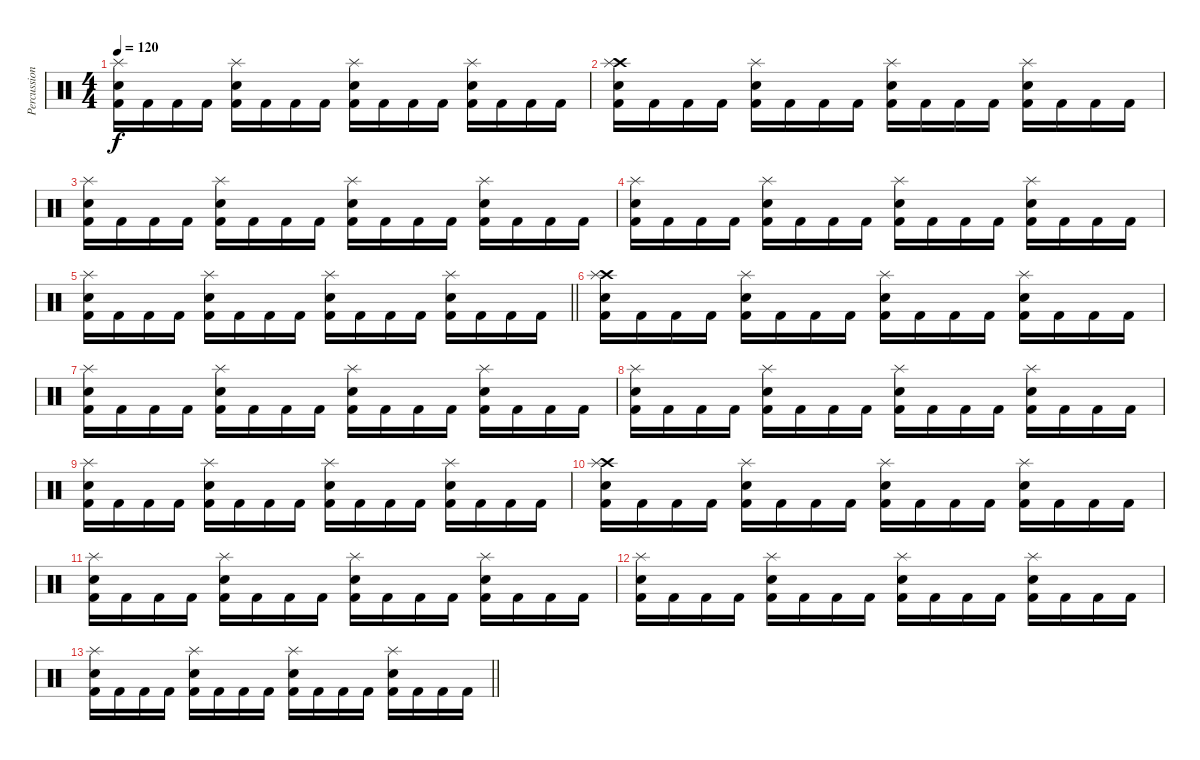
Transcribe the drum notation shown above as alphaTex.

\track ("Percussion" "Percussion") {instrument percussion}
\staff {score}
\articulation defaults
\ts (4 4)
\tempo 120
\clef neutral
\ks c
("Splash (hit)" "Electric Snare (hit)" "Kick (hit) 2").16{dy f} "Kick (hit) 2".16 "Kick (hit) 2".16 "Kick (hit) 2".16 ("Splash (hit)" "Electric Snare (hit)" "Kick (hit) 2").16 "Kick (hit) 2".16 "Kick (hit) 2".16 "Kick (hit) 2".16 ("Splash (hit)" "Electric Snare (hit)" "Kick (hit) 2").16 "Kick (hit) 2".16 "Kick (hit) 2".16 "Kick (hit) 2".16 ("Splash (hit)" "Electric Snare (hit)" "Kick (hit) 2").16 "Kick (hit) 2".16 "Kick (hit) 2".16 "Kick (hit) 2".16 |
("Crash high (hit)" "Splash (hit)" "Electric Snare (hit)" "Kick (hit) 2").16 "Kick (hit) 2".16 "Kick (hit) 2".16 "Kick (hit) 2".16 ("Splash (hit)" "Electric Snare (hit)" "Kick (hit) 2").16 "Kick (hit) 2".16 "Kick (hit) 2".16 "Kick (hit) 2".16 ("Splash (hit)" "Electric Snare (hit)" "Kick (hit) 2").16 "Kick (hit) 2".16 "Kick (hit) 2".16 "Kick (hit) 2".16 ("Splash (hit)" "Electric Snare (hit)" "Kick (hit) 2").16 "Kick (hit) 2".16 "Kick (hit) 2".16 "Kick (hit) 2".16 |
("Splash (hit)" "Electric Snare (hit)" "Kick (hit) 2").16 "Kick (hit) 2".16 "Kick (hit) 2".16 "Kick (hit) 2".16 ("Splash (hit)" "Electric Snare (hit)" "Kick (hit) 2").16 "Kick (hit) 2".16 "Kick (hit) 2".16 "Kick (hit) 2".16 ("Splash (hit)" "Electric Snare (hit)" "Kick (hit) 2").16 "Kick (hit) 2".16 "Kick (hit) 2".16 "Kick (hit) 2".16 ("Splash (hit)" "Electric Snare (hit)" "Kick (hit) 2").16 "Kick (hit) 2".16 "Kick (hit) 2".16 "Kick (hit) 2".16 |
("Splash (hit)" "Electric Snare (hit)" "Kick (hit) 2").16 "Kick (hit) 2".16 "Kick (hit) 2".16 "Kick (hit) 2".16 ("Splash (hit)" "Electric Snare (hit)" "Kick (hit) 2").16 "Kick (hit) 2".16 "Kick (hit) 2".16 "Kick (hit) 2".16 ("Splash (hit)" "Electric Snare (hit)" "Kick (hit) 2").16 "Kick (hit) 2".16 "Kick (hit) 2".16 "Kick (hit) 2".16 ("Splash (hit)" "Electric Snare (hit)" "Kick (hit) 2").16 "Kick (hit) 2".16 "Kick (hit) 2".16 "Kick (hit) 2".16 |
\barLineRight lightlight
("Splash (hit)" "Electric Snare (hit)" "Kick (hit) 2").16 "Kick (hit) 2".16 "Kick (hit) 2".16 "Kick (hit) 2".16 ("Splash (hit)" "Electric Snare (hit)" "Kick (hit) 2").16 "Kick (hit) 2".16 "Kick (hit) 2".16 "Kick (hit) 2".16 ("Splash (hit)" "Electric Snare (hit)" "Kick (hit) 2").16 "Kick (hit) 2".16 "Kick (hit) 2".16 "Kick (hit) 2".16 ("Splash (hit)" "Electric Snare (hit)" "Kick (hit) 2").16 "Kick (hit) 2".16 "Kick (hit) 2".16 "Kick (hit) 2".16 |
("Crash high (hit)" "Splash (hit)" "Electric Snare (hit)" "Kick (hit) 2").16 "Kick (hit) 2".16 "Kick (hit) 2".16 "Kick (hit) 2".16 ("Splash (hit)" "Electric Snare (hit)" "Kick (hit) 2").16 "Kick (hit) 2".16 "Kick (hit) 2".16 "Kick (hit) 2".16 ("Splash (hit)" "Electric Snare (hit)" "Kick (hit) 2").16 "Kick (hit) 2".16 "Kick (hit) 2".16 "Kick (hit) 2".16 ("Splash (hit)" "Electric Snare (hit)" "Kick (hit) 2").16 "Kick (hit) 2".16 "Kick (hit) 2".16 "Kick (hit) 2".16 |
("Splash (hit)" "Electric Snare (hit)" "Kick (hit) 2").16 "Kick (hit) 2".16 "Kick (hit) 2".16 "Kick (hit) 2".16 ("Splash (hit)" "Electric Snare (hit)" "Kick (hit) 2").16 "Kick (hit) 2".16 "Kick (hit) 2".16 "Kick (hit) 2".16 ("Splash (hit)" "Electric Snare (hit)" "Kick (hit) 2").16 "Kick (hit) 2".16 "Kick (hit) 2".16 "Kick (hit) 2".16 ("Splash (hit)" "Electric Snare (hit)" "Kick (hit) 2").16 "Kick (hit) 2".16 "Kick (hit) 2".16 "Kick (hit) 2".16 |
("Splash (hit)" "Electric Snare (hit)" "Kick (hit) 2").16 "Kick (hit) 2".16 "Kick (hit) 2".16 "Kick (hit) 2".16 ("Splash (hit)" "Electric Snare (hit)" "Kick (hit) 2").16 "Kick (hit) 2".16 "Kick (hit) 2".16 "Kick (hit) 2".16 ("Splash (hit)" "Electric Snare (hit)" "Kick (hit) 2").16 "Kick (hit) 2".16 "Kick (hit) 2".16 "Kick (hit) 2".16 ("Splash (hit)" "Electric Snare (hit)" "Kick (hit) 2").16 "Kick (hit) 2".16 "Kick (hit) 2".16 "Kick (hit) 2".16 |
("Splash (hit)" "Electric Snare (hit)" "Kick (hit) 2").16 "Kick (hit) 2".16 "Kick (hit) 2".16 "Kick (hit) 2".16 ("Splash (hit)" "Electric Snare (hit)" "Kick (hit) 2").16 "Kick (hit) 2".16 "Kick (hit) 2".16 "Kick (hit) 2".16 ("Splash (hit)" "Electric Snare (hit)" "Kick (hit) 2").16 "Kick (hit) 2".16 "Kick (hit) 2".16 "Kick (hit) 2".16 ("Splash (hit)" "Electric Snare (hit)" "Kick (hit) 2").16 "Kick (hit) 2".16 "Kick (hit) 2".16 "Kick (hit) 2".16 |
("Crash high (hit)" "Splash (hit)" "Electric Snare (hit)" "Kick (hit) 2").16 "Kick (hit) 2".16 "Kick (hit) 2".16 "Kick (hit) 2".16 ("Splash (hit)" "Electric Snare (hit)" "Kick (hit) 2").16 "Kick (hit) 2".16 "Kick (hit) 2".16 "Kick (hit) 2".16 ("Splash (hit)" "Electric Snare (hit)" "Kick (hit) 2").16 "Kick (hit) 2".16 "Kick (hit) 2".16 "Kick (hit) 2".16 ("Splash (hit)" "Electric Snare (hit)" "Kick (hit) 2").16 "Kick (hit) 2".16 "Kick (hit) 2".16 "Kick (hit) 2".16 |
("Splash (hit)" "Electric Snare (hit)" "Kick (hit) 2").16 "Kick (hit) 2".16 "Kick (hit) 2".16 "Kick (hit) 2".16 ("Splash (hit)" "Electric Snare (hit)" "Kick (hit) 2").16 "Kick (hit) 2".16 "Kick (hit) 2".16 "Kick (hit) 2".16 ("Splash (hit)" "Electric Snare (hit)" "Kick (hit) 2").16 "Kick (hit) 2".16 "Kick (hit) 2".16 "Kick (hit) 2".16 ("Splash (hit)" "Electric Snare (hit)" "Kick (hit) 2").16 "Kick (hit) 2".16 "Kick (hit) 2".16 "Kick (hit) 2".16 |
("Splash (hit)" "Electric Snare (hit)" "Kick (hit) 2").16 "Kick (hit) 2".16 "Kick (hit) 2".16 "Kick (hit) 2".16 ("Splash (hit)" "Electric Snare (hit)" "Kick (hit) 2").16 "Kick (hit) 2".16 "Kick (hit) 2".16 "Kick (hit) 2".16 ("Splash (hit)" "Electric Snare (hit)" "Kick (hit) 2").16 "Kick (hit) 2".16 "Kick (hit) 2".16 "Kick (hit) 2".16 ("Splash (hit)" "Electric Snare (hit)" "Kick (hit) 2").16 "Kick (hit) 2".16 "Kick (hit) 2".16 "Kick (hit) 2".16 |
\barLineRight lightlight
("Splash (hit)" "Electric Snare (hit)" "Kick (hit) 2").16 "Kick (hit) 2".16 "Kick (hit) 2".16 "Kick (hit) 2".16 ("Splash (hit)" "Electric Snare (hit)" "Kick (hit) 2").16 "Kick (hit) 2".16 "Kick (hit) 2".16 "Kick (hit) 2".16 ("Splash (hit)" "Electric Snare (hit)" "Kick (hit) 2").16 "Kick (hit) 2".16 "Kick (hit) 2".16 "Kick (hit) 2".16 ("Splash (hit)" "Electric Snare (hit)" "Kick (hit) 2").16 "Kick (hit) 2".16 "Kick (hit) 2".16 "Kick (hit) 2".16
